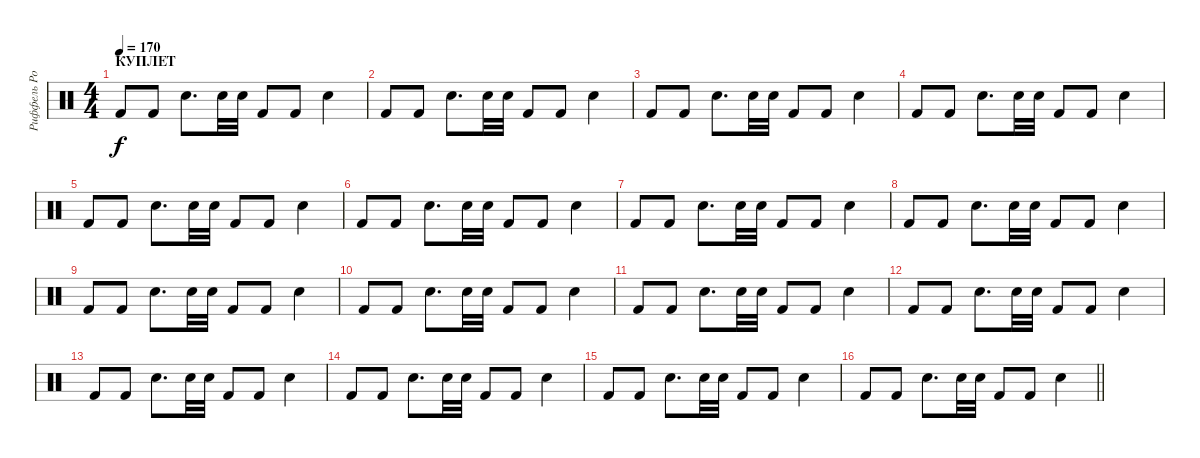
\track ("Риффель Роман (главные)" "Риффель Ро") {instrument percussion}
\staff {score}
\articulation defaults
\ts (4 4)
\section ("" "КУПЛЕТ")
\tempo 170
\clef neutral
\ks c "Kick (hit) 2".8{dy f} "Kick (hit) 2".8 "Electric Snare (hit)".8{d} "Electric Snare (hit)".32 "Electric Snare (hit)".32 "Kick (hit) 2".8 "Kick (hit) 2".8 "Electric Snare (hit)".4
|
"Kick (hit) 2".8 "Kick (hit) 2".8 "Electric Snare (hit)".8{d} "Electric Snare (hit)".32 "Electric Snare (hit)".32 "Kick (hit) 2".8 "Kick (hit) 2".8 "Electric Snare (hit)".4 |
"Kick (hit) 2".8 "Kick (hit) 2".8 "Electric Snare (hit)".8{d} "Electric Snare (hit)".32 "Electric Snare (hit)".32 "Kick (hit) 2".8 "Kick (hit) 2".8 "Electric Snare (hit)".4 |
"Kick (hit) 2".8 "Kick (hit) 2".8 "Electric Snare (hit)".8{d} "Electric Snare (hit)".32 "Electric Snare (hit)".32 "Kick (hit) 2".8 "Kick (hit) 2".8 "Electric Snare (hit)".4 |
"Kick (hit) 2".8 "Kick (hit) 2".8 "Electric Snare (hit)".8{d} "Electric Snare (hit)".32 "Electric Snare (hit)".32 "Kick (hit) 2".8 "Kick (hit) 2".8 "Electric Snare (hit)".4 |
"Kick (hit) 2".8 "Kick (hit) 2".8 "Electric Snare (hit)".8{d} "Electric Snare (hit)".32 "Electric Snare (hit)".32 "Kick (hit) 2".8 "Kick (hit) 2".8 "Electric Snare (hit)".4 |
"Kick (hit) 2".8 "Kick (hit) 2".8 "Electric Snare (hit)".8{d} "Electric Snare (hit)".32 "Electric Snare (hit)".32 "Kick (hit) 2".8 "Kick (hit) 2".8 "Electric Snare (hit)".4 |
"Kick (hit) 2".8 "Kick (hit) 2".8 "Electric Snare (hit)".8{d} "Electric Snare (hit)".32 "Electric Snare (hit)".32 "Kick (hit) 2".8 "Kick (hit) 2".8 "Electric Snare (hit)".4 |
"Kick (hit) 2".8 "Kick (hit) 2".8 "Electric Snare (hit)".8{d} "Electric Snare (hit)".32 "Electric Snare (hit)".32 "Kick (hit) 2".8 "Kick (hit) 2".8 "Electric Snare (hit)".4 |
"Kick (hit) 2".8 "Kick (hit) 2".8 "Electric Snare (hit)".8{d} "Electric Snare (hit)".32 "Electric Snare (hit)".32 "Kick (hit) 2".8 "Kick (hit) 2".8 "Electric Snare (hit)".4 |
"Kick (hit) 2".8 "Kick (hit) 2".8 "Electric Snare (hit)".8{d} "Electric Snare (hit)".32 "Electric Snare (hit)".32 "Kick (hit) 2".8 "Kick (hit) 2".8 "Electric Snare (hit)".4 |
"Kick (hit) 2".8 "Kick (hit) 2".8 "Electric Snare (hit)".8{d} "Electric Snare (hit)".32 "Electric Snare (hit)".32 "Kick (hit) 2".8 "Kick (hit) 2".8 "Electric Snare (hit)".4 |
"Kick (hit) 2".8 "Kick (hit) 2".8 "Electric Snare (hit)".8{d} "Electric Snare (hit)".32 "Electric Snare (hit)".32 "Kick (hit) 2".8 "Kick (hit) 2".8 "Electric Snare (hit)".4 |
"Kick (hit) 2".8 "Kick (hit) 2".8 "Electric Snare (hit)".8{d} "Electric Snare (hit)".32 "Electric Snare (hit)".32 "Kick (hit) 2".8 "Kick (hit) 2".8 "Electric Snare (hit)".4 |
"Kick (hit) 2".8 "Kick (hit) 2".8 "Electric Snare (hit)".8{d} "Electric Snare (hit)".32 "Electric Snare (hit)".32 "Kick (hit) 2".8 "Kick (hit) 2".8 "Electric Snare (hit)".4 |
\barLineRight lightlight "Kick (hit) 2".8 "Kick (hit) 2".8 "Electric Snare (hit)".8{d} "Electric Snare (hit)".32 "Electric Snare (hit)".32 "Kick (hit) 2".8 "Kick (hit) 2".8 "Electric Snare (hit)".4
